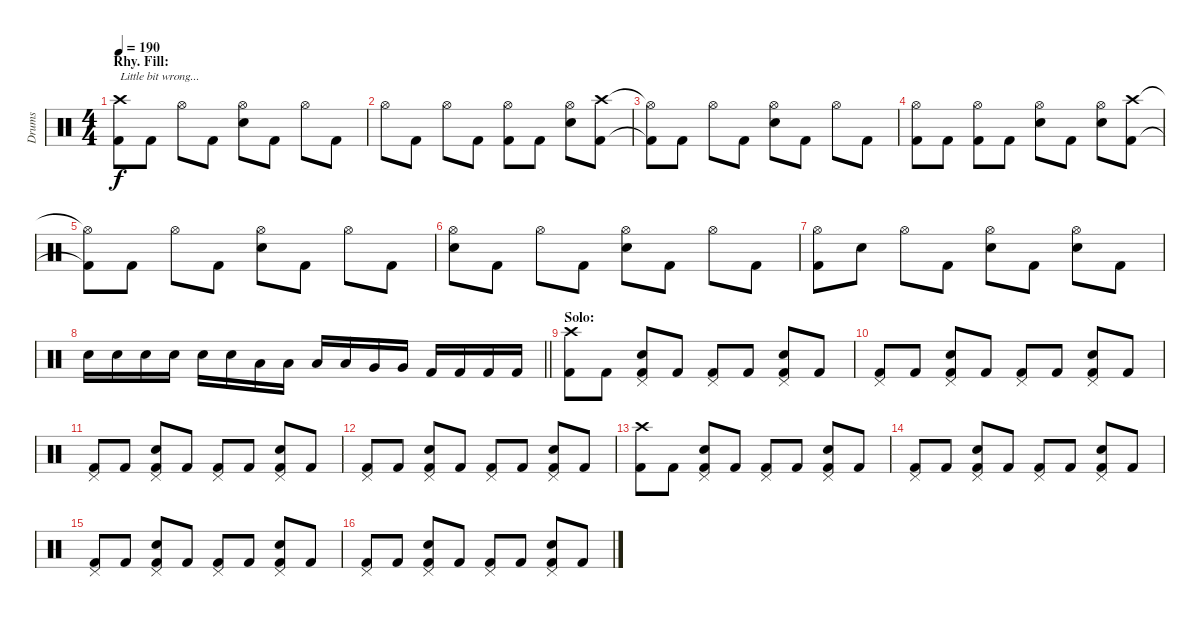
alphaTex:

\track ("Drums" "Drums") {instrument percussion}
\staff {score}
\articulation defaults
\ts (4 4)
\section ("" "Rhy. Fill:")
\tempo 190
\clef neutral
\ks c
("Crash high (hit)" "Kick (hit) 2").8{txt "Little bit wrong..." dy f} "Kick (hit) 2".8 "Hi-Hat (open)".8 "Kick (hit) 2".8 ("Hi-Hat (open)" "Electric Snare (hit)").8 "Kick (hit) 2".8 "Hi-Hat (open)".8 "Kick (hit) 2".8 |
"Hi-Hat (open)".8 "Kick (hit) 2".8 "Hi-Hat (open)".8 "Kick (hit) 2".8 ("Hi-Hat (open)" "Kick (hit) 2").8 "Kick (hit) 2".8 ("Hi-Hat (open)" "Electric Snare (hit)").8 ("Crash high (hit)" "Kick (hit) 2").8 |
("Hi-Hat (open)"{t} "Kick (hit) 2"{t}).8 "Kick (hit) 2".8 "Hi-Hat (open)".8 "Kick (hit) 2".8 ("Hi-Hat (open)" "Electric Snare (hit)").8 "Kick (hit) 2".8 "Hi-Hat (open)".8 "Kick (hit) 2".8 |
("Hi-Hat (open)" "Kick (hit) 2").8 "Kick (hit) 2".8 ("Hi-Hat (open)" "Kick (hit) 2").8 "Kick (hit) 2".8 ("Hi-Hat (open)" "Electric Snare (hit)").8 "Kick (hit) 2".8 ("Hi-Hat (open)" "Electric Snare (hit)").8 ("Crash high (hit)" "Kick (hit) 2").8 |
("Hi-Hat (open)"{t} "Kick (hit) 2"{t}).8 "Kick (hit) 2".8 "Hi-Hat (open)".8 "Kick (hit) 2".8 ("Hi-Hat (open)" "Electric Snare (hit)").8 "Kick (hit) 2".8 "Hi-Hat (open)".8 "Kick (hit) 2".8 |
("Hi-Hat (open)" "Electric Snare (hit)").8 "Kick (hit) 2".8 "Hi-Hat (open)".8 "Kick (hit) 2".8 ("Hi-Hat (open)" "Electric Snare (hit)").8 "Kick (hit) 2".8 "Hi-Hat (open)".8 "Kick (hit) 2".8 |
("Hi-Hat (open)" "Kick (hit) 2").8 "Electric Snare (hit)".8 "Hi-Hat (open)".8 "Kick (hit) 2".8 ("Hi-Hat (open)" "Electric Snare (hit)").8 "Kick (hit) 2".8 ("Hi-Hat (open)" "Electric Snare (hit)").8 "Kick (hit) 2".8 |
\barLineRight lightlight "Electric Snare (hit)".16 "Electric Snare (hit)".16 "Electric Snare (hit)".16 "Electric Snare (hit)".16 "Electric Snare (hit)".16 "Electric Snare (hit)".16 "Low Tom (hit)".16 "Low Tom (hit)".16 "Low Tom (hit)".16 "Low Tom (hit)".16 "Very Low Tom (hit)".16 "Very Low Tom (hit)".16 "Kick (hit) 2".16 "Kick (hit) 2".16 "Kick (hit) 2".16 "Kick (hit) 2".16
|
\section ("" "Solo:")
("Crash high (hit)" "Kick (hit) 2").8 "Kick (hit) 2".8 ("Pedal Hi-Hat (hit)" "Electric Snare (hit)" "Kick (hit) 2").8 "Kick (hit) 2".8 ("Pedal Hi-Hat (hit)" "Kick (hit) 2").8 "Kick (hit) 2".8 ("Pedal Hi-Hat (hit)" "Electric Snare (hit)" "Kick (hit) 2").8 "Kick (hit) 2".8 |
("Pedal Hi-Hat (hit)" "Kick (hit) 2").8 "Kick (hit) 2".8 ("Pedal Hi-Hat (hit)" "Electric Snare (hit)" "Kick (hit) 2").8 "Kick (hit) 2".8 ("Pedal Hi-Hat (hit)" "Kick (hit) 2").8 "Kick (hit) 2".8 ("Pedal Hi-Hat (hit)" "Electric Snare (hit)" "Kick (hit) 2").8 "Kick (hit) 2".8 |
("Pedal Hi-Hat (hit)" "Kick (hit) 2").8 "Kick (hit) 2".8 ("Pedal Hi-Hat (hit)" "Electric Snare (hit)" "Kick (hit) 2").8 "Kick (hit) 2".8 ("Pedal Hi-Hat (hit)" "Kick (hit) 2").8 "Kick (hit) 2".8 ("Pedal Hi-Hat (hit)" "Electric Snare (hit)" "Kick (hit) 2").8 "Kick (hit) 2".8 |
("Pedal Hi-Hat (hit)" "Kick (hit) 2").8 "Kick (hit) 2".8 ("Pedal Hi-Hat (hit)" "Electric Snare (hit)" "Kick (hit) 2").8 "Kick (hit) 2".8 ("Pedal Hi-Hat (hit)" "Kick (hit) 2").8 "Kick (hit) 2".8 ("Pedal Hi-Hat (hit)" "Electric Snare (hit)" "Kick (hit) 2").8 "Kick (hit) 2".8 |
("Crash high (hit)" "Kick (hit) 2").8 "Kick (hit) 2".8 ("Pedal Hi-Hat (hit)" "Electric Snare (hit)" "Kick (hit) 2").8 "Kick (hit) 2".8 ("Pedal Hi-Hat (hit)" "Kick (hit) 2").8 "Kick (hit) 2".8 ("Pedal Hi-Hat (hit)" "Electric Snare (hit)" "Kick (hit) 2").8 "Kick (hit) 2".8 |
("Pedal Hi-Hat (hit)" "Kick (hit) 2").8 "Kick (hit) 2".8 ("Pedal Hi-Hat (hit)" "Electric Snare (hit)" "Kick (hit) 2").8 "Kick (hit) 2".8 ("Pedal Hi-Hat (hit)" "Kick (hit) 2").8 "Kick (hit) 2".8 ("Pedal Hi-Hat (hit)" "Electric Snare (hit)" "Kick (hit) 2").8 "Kick (hit) 2".8 |
("Pedal Hi-Hat (hit)" "Kick (hit) 2").8 "Kick (hit) 2".8 ("Pedal Hi-Hat (hit)" "Electric Snare (hit)" "Kick (hit) 2").8 "Kick (hit) 2".8 ("Pedal Hi-Hat (hit)" "Kick (hit) 2").8 "Kick (hit) 2".8 ("Pedal Hi-Hat (hit)" "Electric Snare (hit)" "Kick (hit) 2").8 "Kick (hit) 2".8 |
("Pedal Hi-Hat (hit)" "Kick (hit) 2").8 "Kick (hit) 2".8 ("Pedal Hi-Hat (hit)" "Electric Snare (hit)" "Kick (hit) 2").8 "Kick (hit) 2".8 ("Pedal Hi-Hat (hit)" "Kick (hit) 2").8 "Kick (hit) 2".8 ("Pedal Hi-Hat (hit)" "Electric Snare (hit)" "Kick (hit) 2").8 "Kick (hit) 2".8
